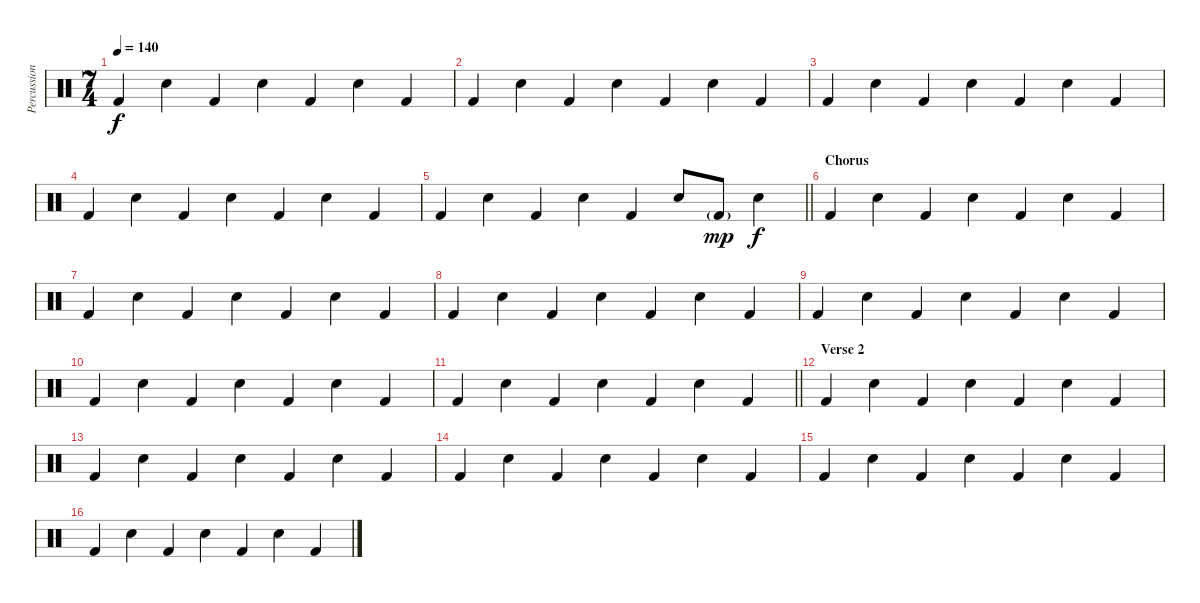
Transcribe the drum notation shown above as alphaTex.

\track ("Percussion" "Percussion") {instrument percussion}
\staff {score}
\articulation defaults
\ts (7 4)
\tempo 140
\clef neutral
\ks c "Kick (hit) 2".4{dy f} "Snare (hit) 2".4 "Kick (hit) 2".4 "Snare (hit) 2".4 "Kick (hit) 2".4 "Snare (hit) 2".4 "Kick (hit) 2".4
|
"Kick (hit) 2".4 "Snare (hit) 2".4 "Kick (hit) 2".4 "Snare (hit) 2".4 "Kick (hit) 2".4 "Snare (hit) 2".4 "Kick (hit) 2".4 |
"Kick (hit) 2".4 "Snare (hit) 2".4 "Kick (hit) 2".4 "Snare (hit) 2".4 "Kick (hit) 2".4 "Snare (hit) 2".4 "Kick (hit) 2".4 |
"Kick (hit) 2".4 "Snare (hit) 2".4 "Kick (hit) 2".4 "Snare (hit) 2".4 "Kick (hit) 2".4 "Snare (hit) 2".4 "Kick (hit) 2".4 |
\barLineRight lightlight "Kick (hit) 2".4 "Snare (hit) 2".4 "Kick (hit) 2".4 "Snare (hit) 2".4 "Kick (hit) 2".4 "Snare (hit) 2".8 "Kick (hit) 2"{g}.8{dy mp} "Snare (hit) 2".4{dy f}
|
\section ("" "Chorus")
"Kick (hit) 2".4 "Snare (hit) 2".4 "Kick (hit) 2".4 "Snare (hit) 2".4 "Kick (hit) 2".4 "Snare (hit) 2".4 "Kick (hit) 2".4 |
"Kick (hit) 2".4 "Snare (hit) 2".4 "Kick (hit) 2".4 "Snare (hit) 2".4 "Kick (hit) 2".4 "Snare (hit) 2".4 "Kick (hit) 2".4 |
"Kick (hit) 2".4 "Snare (hit) 2".4 "Kick (hit) 2".4 "Snare (hit) 2".4 "Kick (hit) 2".4 "Snare (hit) 2".4 "Kick (hit) 2".4 |
"Kick (hit) 2".4 "Snare (hit) 2".4 "Kick (hit) 2".4 "Snare (hit) 2".4 "Kick (hit) 2".4 "Snare (hit) 2".4 "Kick (hit) 2".4 |
"Kick (hit) 2".4 "Snare (hit) 2".4 "Kick (hit) 2".4 "Snare (hit) 2".4 "Kick (hit) 2".4 "Snare (hit) 2".4 "Kick (hit) 2".4 |
\barLineRight lightlight "Kick (hit) 2".4 "Snare (hit) 2".4 "Kick (hit) 2".4 "Snare (hit) 2".4 "Kick (hit) 2".4 "Snare (hit) 2".4 "Kick (hit) 2".4
|
\section ("" "Verse 2")
"Kick (hit) 2".4 "Snare (hit) 2".4 "Kick (hit) 2".4 "Snare (hit) 2".4 "Kick (hit) 2".4 "Snare (hit) 2".4 "Kick (hit) 2".4 |
"Kick (hit) 2".4 "Snare (hit) 2".4 "Kick (hit) 2".4 "Snare (hit) 2".4 "Kick (hit) 2".4 "Snare (hit) 2".4 "Kick (hit) 2".4 |
"Kick (hit) 2".4 "Snare (hit) 2".4 "Kick (hit) 2".4 "Snare (hit) 2".4 "Kick (hit) 2".4 "Snare (hit) 2".4 "Kick (hit) 2".4 |
"Kick (hit) 2".4 "Snare (hit) 2".4 "Kick (hit) 2".4 "Snare (hit) 2".4 "Kick (hit) 2".4 "Snare (hit) 2".4 "Kick (hit) 2".4 |
"Kick (hit) 2".4 "Snare (hit) 2".4 "Kick (hit) 2".4 "Snare (hit) 2".4 "Kick (hit) 2".4 "Snare (hit) 2".4 "Kick (hit) 2".4
